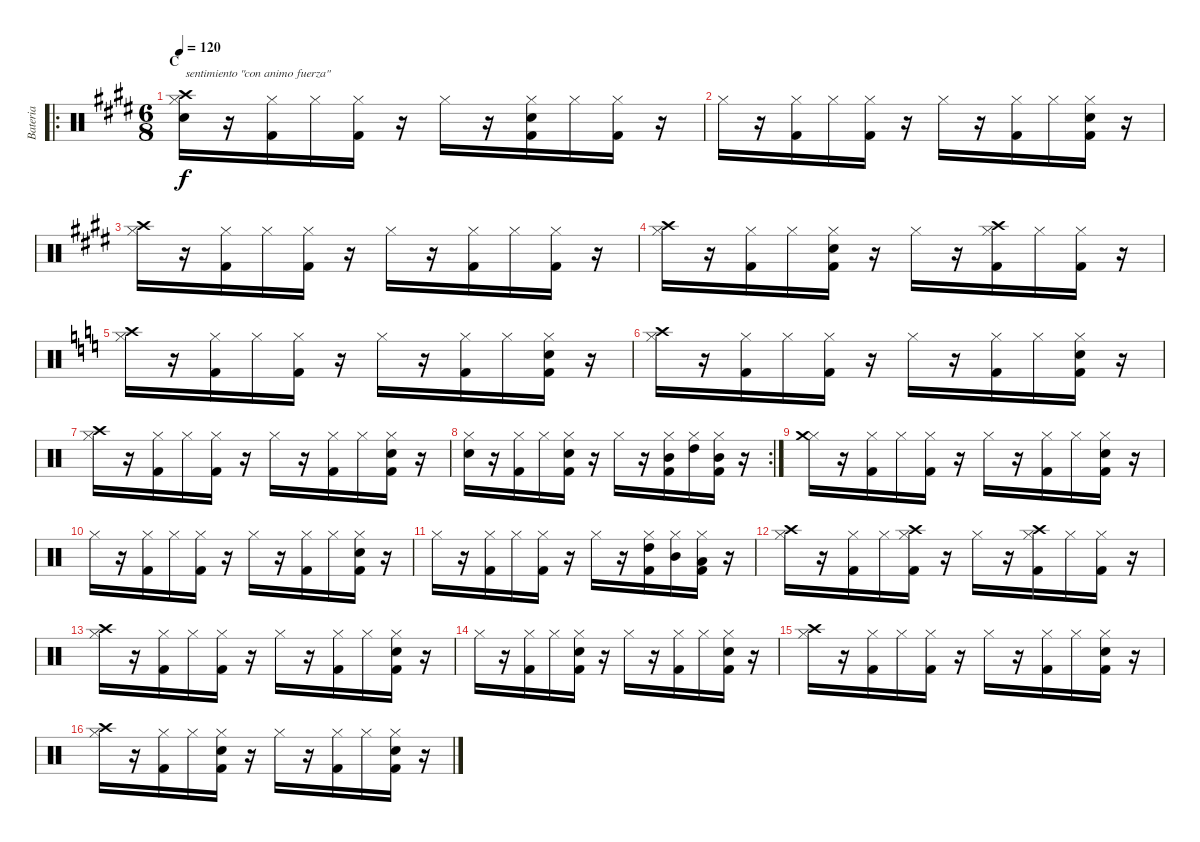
\track ("Bateria" "Bateria") {instrument percussion}
\staff {score}
\articulation defaults
\ro
\ts (6 8)
\section ("" "C")
\tempo 120
\clef neutral
\ks e
("Hi-Hat (closed)" "Crash high (hit)" "Snare (hit) 2").16{txt "sentimiento \"con animo fuerza\"" dy f} r.16 ("Hi-Hat (closed)" "Kick (hit) 2").16 "Hi-Hat (closed)".16 ("Hi-Hat (closed)" "Kick (hit) 2").16 r.16 "Hi-Hat (closed)".16 r.16 ("Hi-Hat (closed)" "Kick (hit) 2" "Electric Snare (hit)").16 "Hi-Hat (closed)".16 ("Hi-Hat (closed)" "Kick (hit) 2").16 r.16 |
"Hi-Hat (closed)".16 r.16 ("Hi-Hat (closed)" "Kick (hit) 2").16 "Hi-Hat (closed)".16 ("Hi-Hat (closed)" "Kick (hit) 2").16 r.16 "Hi-Hat (closed)".16 r.16 ("Hi-Hat (closed)" "Kick (hit) 2").16 "Hi-Hat (closed)".16 ("Hi-Hat (closed)" "Kick (hit) 2" "Electric Snare (hit)").16 r.16 |
("Hi-Hat (closed)" "Crash high (hit)").16 r.16 ("Hi-Hat (closed)" "Kick (hit) 2").16 "Hi-Hat (closed)".16 ("Hi-Hat (closed)" "Kick (hit) 2").16 r.16 "Hi-Hat (closed)".16 r.16 ("Hi-Hat (closed)" "Kick (hit) 2").16 "Hi-Hat (closed)".16 ("Hi-Hat (closed)" "Kick (hit) 2").16 r.16 |
("Hi-Hat (closed)" "Crash high (hit)").16 r.16 ("Hi-Hat (closed)" "Kick (hit) 2").16 "Hi-Hat (closed)".16 ("Hi-Hat (closed)" "Kick (hit) 2" "Electric Snare (hit)").16 r.16 "Hi-Hat (closed)".16 r.16 ("Hi-Hat (closed)" "Kick (hit) 2" "Crash high (hit)").16 "Hi-Hat (closed)".16 ("Hi-Hat (closed)" "Kick (hit) 2").16 r.16 |
\ks c
("Hi-Hat (closed)" "Crash high (hit)").16 r.16 ("Hi-Hat (closed)" "Kick (hit) 2").16 "Hi-Hat (closed)".16 ("Hi-Hat (closed)" "Kick (hit) 2").16 r.16 "Hi-Hat (closed)".16 r.16 ("Hi-Hat (closed)" "Kick (hit) 2").16 "Hi-Hat (closed)".16 ("Hi-Hat (closed)" "Kick (hit) 2" "Electric Snare (hit)").16 r.16 |
("Hi-Hat (closed)" "Crash high (hit)").16 r.16 ("Hi-Hat (closed)" "Kick (hit) 2").16 "Hi-Hat (closed)".16 ("Hi-Hat (closed)" "Kick (hit) 2").16 r.16 "Hi-Hat (closed)".16 r.16 ("Hi-Hat (closed)" "Kick (hit) 2").16 "Hi-Hat (closed)".16 ("Hi-Hat (closed)" "Kick (hit) 2" "Electric Snare (hit)").16 r.16 |
("Hi-Hat (closed)" "Crash high (hit)").16 r.16 ("Hi-Hat (closed)" "Kick (hit) 2").16 "Hi-Hat (closed)".16 ("Hi-Hat (closed)" "Kick (hit) 2").16 r.16 "Hi-Hat (closed)".16 r.16 ("Hi-Hat (closed)" "Kick (hit) 2").16 "Hi-Hat (closed)".16 ("Hi-Hat (closed)" "Kick (hit) 2" "Electric Snare (hit)").16 r.16 |
\rc 2
("Hi-Hat (closed)" "Electric Snare (hit)").16 r.16 ("Hi-Hat (closed)" "Kick (hit) 2").16 "Hi-Hat (closed)".16 ("Hi-Hat (closed)" "Kick (hit) 2" "Electric Snare (hit)").16 r.16 "Hi-Hat (closed)".16 r.16 ("Hi-Hat (closed)" "Kick (hit) 2" "Mid Tom (hit)").16 ("Hi-Hat (closed)" "High Tom (hit)").16 ("Hi-Hat (closed)" "Kick (hit) 2" "Mid Tom (hit)").16 r.16 |
("Hi-Hat (closed)" "Crash medium (hit)").16 r.16 ("Hi-Hat (closed)" "Kick (hit) 2").16 "Hi-Hat (closed)".16 ("Hi-Hat (closed)" "Kick (hit) 2").16 r.16 "Hi-Hat (closed)".16 r.16 ("Hi-Hat (closed)" "Kick (hit) 2").16 "Hi-Hat (closed)".16 ("Hi-Hat (closed)" "Kick (hit) 2" "Electric Snare (hit)").16 r.16 |
"Hi-Hat (closed)".16 r.16 ("Hi-Hat (closed)" "Kick (hit) 2").16 "Hi-Hat (closed)".16 ("Hi-Hat (closed)" "Kick (hit) 2").16 r.16 "Hi-Hat (closed)".16 r.16 ("Hi-Hat (closed)" "Kick (hit) 2").16 "Hi-Hat (closed)".16 ("Hi-Hat (closed)" "Kick (hit) 2" "Electric Snare (hit)").16 r.16 |
"Hi-Hat (closed)".16 r.16 ("Hi-Hat (closed)" "Kick (hit) 2").16 "Hi-Hat (closed)".16 ("Hi-Hat (closed)" "Kick (hit) 2").16 r.16 "Hi-Hat (closed)".16 r.16 ("Hi-Hat (closed)" "Kick (hit) 2" "High Tom (hit)").16 ("Hi-Hat (closed)" "Mid Tom (hit)").16 ("Hi-Hat (closed)" "Kick (hit) 2" "Low Tom (hit)").16 r.16 |
("Hi-Hat (closed)" "Crash high (hit)").16 r.16 ("Hi-Hat (closed)" "Kick (hit) 2").16 "Hi-Hat (closed)".16 ("Hi-Hat (closed)" "Kick (hit) 2" "Crash high (hit)").16 r.16 "Hi-Hat (closed)".16 r.16 ("Hi-Hat (closed)" "Kick (hit) 2" "Crash high (hit)").16 "Hi-Hat (closed)".16 ("Hi-Hat (closed)" "Kick (hit) 2").16 r.16 |
("Hi-Hat (closed)" "Crash high (hit)").16 r.16 ("Hi-Hat (closed)" "Kick (hit) 2").16 "Hi-Hat (closed)".16 ("Hi-Hat (closed)" "Kick (hit) 2").16 r.16 "Hi-Hat (closed)".16 r.16 ("Hi-Hat (closed)" "Kick (hit) 2").16 "Hi-Hat (closed)".16 ("Hi-Hat (closed)" "Kick (hit) 2" "Electric Snare (hit)").16 r.16 |
"Hi-Hat (closed)".16 r.16 ("Hi-Hat (closed)" "Kick (hit) 2").16 "Hi-Hat (closed)".16 ("Hi-Hat (closed)" "Kick (hit) 2" "Electric Snare (hit)").16 r.16 "Hi-Hat (closed)".16 r.16 ("Hi-Hat (closed)" "Kick (hit) 2").16 "Hi-Hat (closed)".16 ("Hi-Hat (closed)" "Kick (hit) 2" "Electric Snare (hit)").16 r.16 |
("Hi-Hat (closed)" "Crash high (hit)").16 r.16 ("Hi-Hat (closed)" "Kick (hit) 2").16 "Hi-Hat (closed)".16 ("Hi-Hat (closed)" "Kick (hit) 2").16 r.16 "Hi-Hat (closed)".16 r.16 ("Hi-Hat (closed)" "Kick (hit) 2").16 "Hi-Hat (closed)".16 ("Hi-Hat (closed)" "Kick (hit) 2" "Electric Snare (hit)").16 r.16 |
("Hi-Hat (closed)" "Crash high (hit)").16 r.16 ("Hi-Hat (closed)" "Kick (hit) 2").16 "Hi-Hat (closed)".16 ("Hi-Hat (closed)" "Kick (hit) 2" "Electric Snare (hit)").16 r.16 "Hi-Hat (closed)".16 r.16 ("Hi-Hat (closed)" "Kick (hit) 2").16 "Hi-Hat (closed)".16 ("Hi-Hat (closed)" "Kick (hit) 2" "Electric Snare (hit)").16 r.16
